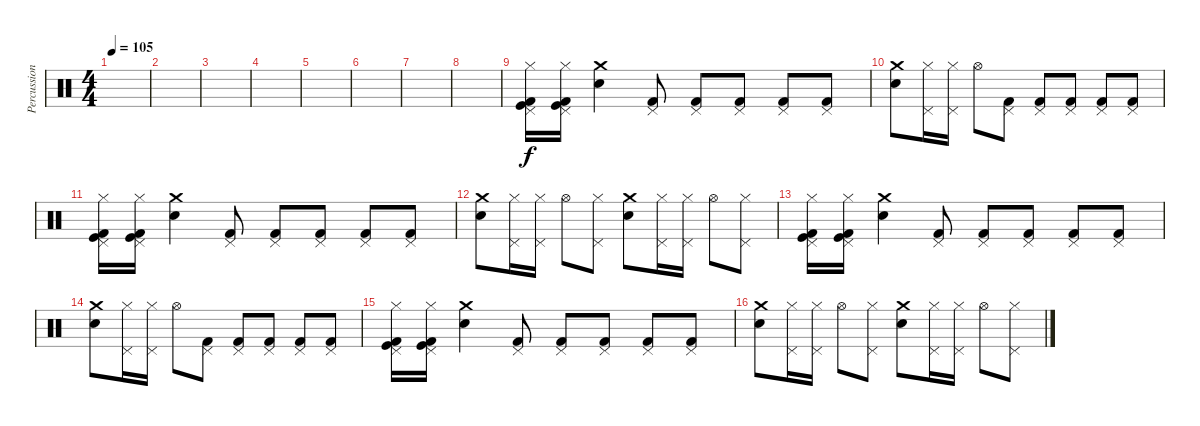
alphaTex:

\track ("Percussion" "Percussion") {instrument percussion}
\staff {score}
\articulation defaults
\ts (4 4)
\tempo 105
\clef neutral
\ks c
|
|
|
|
|
|
|
|
("Hi-Hat (closed)" "Pedal Hi-Hat (hit)" "Kick (hit) 2" "Kick (hit)").16 ("Pedal Hi-Hat (hit)" "Hi-Hat (closed)" "Kick (hit) 2" "Kick (hit)").16 ("Snare (hit) 2" "Crash medium (hit)").4 ("Kick (hit) 2" "Pedal Hi-Hat (hit)").8{volume 14} ("Kick (hit) 2" "Pedal Hi-Hat (hit)").8{volume 13} ("Kick (hit) 2" "Pedal Hi-Hat (hit)").8{volume 12} ("Kick (hit) 2" "Pedal Hi-Hat (hit)").8{volume 11} ("Kick (hit) 2" "Pedal Hi-Hat (hit)").8{volume 10} |
("Snare (hit) 2" "Crash medium (hit)").8{volume 16} ("Pedal Hi-Hat (hit)" "Hi-Hat (closed)").16 ("Pedal Hi-Hat (hit)" "Hi-Hat (closed)").16 "Hi-Hat (open)".8 ("Kick (hit) 2" "Pedal Hi-Hat (hit)").8{volume 14} ("Kick (hit) 2" "Pedal Hi-Hat (hit)").8{volume 13} ("Kick (hit) 2" "Pedal Hi-Hat (hit)").8{volume 12} ("Kick (hit) 2" "Pedal Hi-Hat (hit)").8{volume 11} ("Kick (hit) 2" "Pedal Hi-Hat (hit)").8{volume 10} |
("Hi-Hat (closed)" "Pedal Hi-Hat (hit)" "Kick (hit) 2" "Kick (hit)").16{volume 16} ("Pedal Hi-Hat (hit)" "Hi-Hat (closed)" "Kick (hit) 2" "Kick (hit)").16 ("Snare (hit) 2" "Crash medium (hit)").4 ("Kick (hit) 2" "Pedal Hi-Hat (hit)").8{volume 14} ("Kick (hit) 2" "Pedal Hi-Hat (hit)").8{volume 13} ("Kick (hit) 2" "Pedal Hi-Hat (hit)").8{volume 12} ("Kick (hit) 2" "Pedal Hi-Hat (hit)").8{volume 11} ("Kick (hit) 2" "Pedal Hi-Hat (hit)").8{volume 10} |
("Snare (hit) 2" "Crash medium (hit)").8{volume 16} ("Pedal Hi-Hat (hit)" "Hi-Hat (closed)").16 ("Pedal Hi-Hat (hit)" "Hi-Hat (closed)").16 "Hi-Hat (open)".8 ("Pedal Hi-Hat (hit)" "Hi-Hat (closed)").8 ("Snare (hit) 2" "Crash medium (hit)").8 ("Pedal Hi-Hat (hit)" "Hi-Hat (closed)").16 ("Pedal Hi-Hat (hit)" "Hi-Hat (closed)").16 "Hi-Hat (open)".8 ("Pedal Hi-Hat (hit)" "Hi-Hat (closed)").8 |
("Hi-Hat (closed)" "Pedal Hi-Hat (hit)" "Kick (hit) 2" "Kick (hit)").16 ("Pedal Hi-Hat (hit)" "Hi-Hat (closed)" "Kick (hit) 2" "Kick (hit)").16 ("Snare (hit) 2" "Crash medium (hit)").4 ("Kick (hit) 2" "Pedal Hi-Hat (hit)").8{volume 14} ("Kick (hit) 2" "Pedal Hi-Hat (hit)").8{volume 13} ("Kick (hit) 2" "Pedal Hi-Hat (hit)").8{volume 12} ("Kick (hit) 2" "Pedal Hi-Hat (hit)").8{volume 11} ("Kick (hit) 2" "Pedal Hi-Hat (hit)").8{volume 10} |
("Snare (hit) 2" "Crash medium (hit)").8{volume 16} ("Pedal Hi-Hat (hit)" "Hi-Hat (closed)").16 ("Pedal Hi-Hat (hit)" "Hi-Hat (closed)").16 "Hi-Hat (open)".8 ("Kick (hit) 2" "Pedal Hi-Hat (hit)").8{volume 14} ("Kick (hit) 2" "Pedal Hi-Hat (hit)").8{volume 13} ("Kick (hit) 2" "Pedal Hi-Hat (hit)").8{volume 12} ("Kick (hit) 2" "Pedal Hi-Hat (hit)").8{volume 11} ("Kick (hit) 2" "Pedal Hi-Hat (hit)").8{volume 10} |
("Hi-Hat (closed)" "Pedal Hi-Hat (hit)" "Kick (hit) 2" "Kick (hit)").16{volume 16} ("Pedal Hi-Hat (hit)" "Hi-Hat (closed)" "Kick (hit) 2" "Kick (hit)").16 ("Snare (hit) 2" "Crash medium (hit)").4 ("Kick (hit) 2" "Pedal Hi-Hat (hit)").8{volume 14} ("Kick (hit) 2" "Pedal Hi-Hat (hit)").8{volume 13} ("Kick (hit) 2" "Pedal Hi-Hat (hit)").8{volume 12} ("Kick (hit) 2" "Pedal Hi-Hat (hit)").8{volume 11} ("Kick (hit) 2" "Pedal Hi-Hat (hit)").8{volume 10} |
("Snare (hit) 2" "Crash medium (hit)").8{volume 16} ("Pedal Hi-Hat (hit)" "Hi-Hat (closed)").16 ("Pedal Hi-Hat (hit)" "Hi-Hat (closed)").16 "Hi-Hat (open)".8 ("Pedal Hi-Hat (hit)" "Hi-Hat (closed)").8 ("Snare (hit) 2" "Crash medium (hit)").8 ("Pedal Hi-Hat (hit)" "Hi-Hat (closed)").16 ("Pedal Hi-Hat (hit)" "Hi-Hat (closed)").16 "Hi-Hat (open)".8 ("Pedal Hi-Hat (hit)" "Hi-Hat (closed)").8
